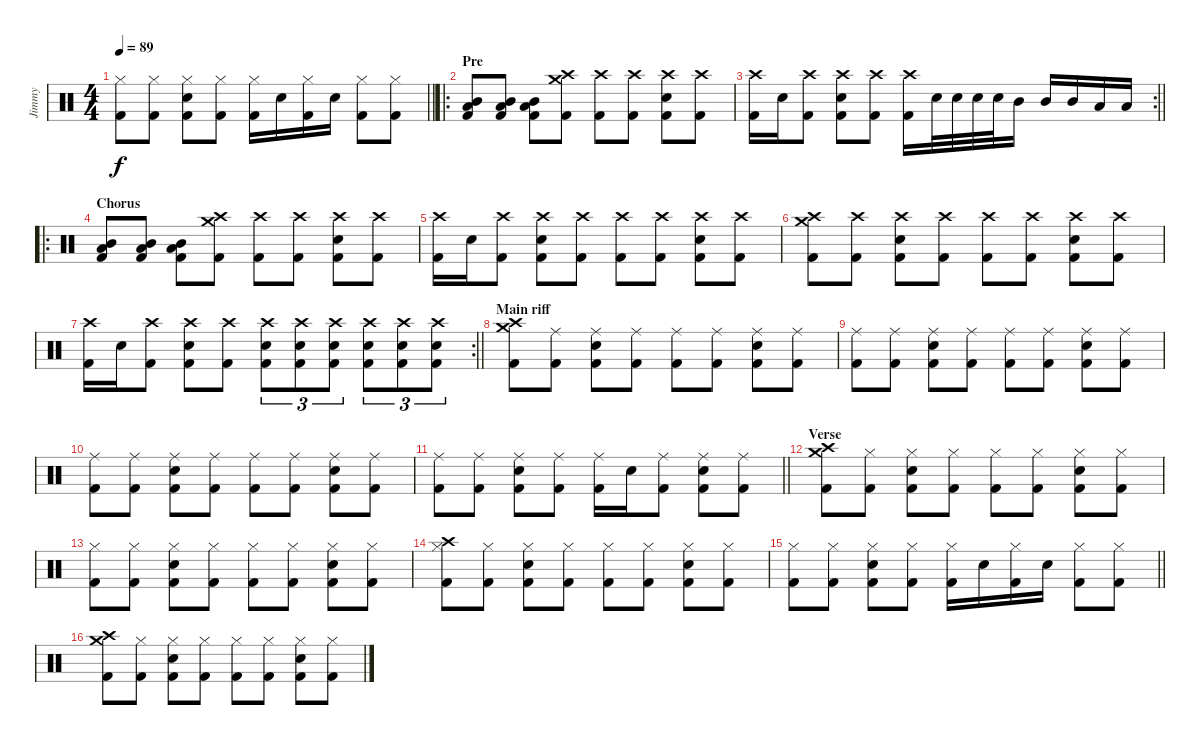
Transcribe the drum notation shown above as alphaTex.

\track ("Jimmy" "Jimmy") {instrument percussion}
\staff {score}
\articulation defaults
\ts (4 4)
\tempo 89
\clef neutral
\barLineRight lightlight
\ks c
("Kick (hit) 2" "Hi-Hat (closed)").8{dy f} ("Kick (hit) 2" "Hi-Hat (closed)").8 ("Kick (hit) 2" "Hi-Hat (closed)" "Electric Snare (hit)").8 ("Kick (hit) 2" "Hi-Hat (closed)").8 ("Kick (hit) 2" "Hi-Hat (closed)").16 "Electric Snare (hit)".16 ("Kick (hit) 2" "Hi-Hat (closed)").16 "Electric Snare (hit)".16 ("Kick (hit) 2" "Hi-Hat (closed)").8 ("Kick (hit) 2" "Hi-Hat (closed)").8 |
\ro
\section ("" "Pre")
("Low Tom (hit)" "Kick (hit) 2" "Mid Tom (hit)").8 ("Low Tom (hit)" "Kick (hit) 2" "Mid Tom (hit)").8 ("Low Tom (hit)" "Kick (hit) 2" "Mid Tom (hit)").8 ("Kick (hit) 2" "Crash high (hit)" "Crash medium (hit)").8 ("Kick (hit) 2" "Crash high (hit)").8 ("Kick (hit) 2" "Crash high (hit)").8 ("Kick (hit) 2" "Crash high (hit)" "Electric Snare (hit)").8 ("Kick (hit) 2" "Crash high (hit)").8 |
\rc 2
\barLineRight lightlight
("Kick (hit) 2" "Crash high (hit)").16 "Electric Snare (hit)".16 ("Kick (hit) 2" "Crash high (hit)").8 ("Kick (hit) 2" "Crash high (hit)" "Electric Snare (hit)").8 ("Kick (hit) 2" "Crash high (hit)").8 ("Kick (hit) 2" "Crash high (hit)").16 "Electric Snare (hit)".32 "Electric Snare (hit)".32 "Electric Snare (hit)".32 "Electric Snare (hit)".32 "Mid Tom (hit)".16 "Mid Tom (hit)".16 "Mid Tom (hit)".16 "Low Tom (hit)".16 "Low Tom (hit)".16 |
\ro
\section ("" "Chorus")
("Low Tom (hit)" "Kick (hit) 2" "Mid Tom (hit)").8 ("Low Tom (hit)" "Kick (hit) 2" "Mid Tom (hit)").8 ("Low Tom (hit)" "Kick (hit) 2" "Mid Tom (hit)").8 ("Kick (hit) 2" "Crash high (hit)" "Crash medium (hit)").8 ("Kick (hit) 2" "Crash high (hit)").8 ("Kick (hit) 2" "Crash high (hit)").8 ("Kick (hit) 2" "Crash high (hit)" "Electric Snare (hit)").8 ("Kick (hit) 2" "Crash high (hit)").8 |
("Kick (hit) 2" "Crash high (hit)").16 "Electric Snare (hit)".16 ("Kick (hit) 2" "Crash high (hit)").8 ("Kick (hit) 2" "Crash high (hit)" "Electric Snare (hit)").8 ("Kick (hit) 2" "Crash high (hit)").8 ("Kick (hit) 2" "Crash high (hit)").8 ("Kick (hit) 2" "Crash high (hit)").8 ("Kick (hit) 2" "Crash high (hit)" "Electric Snare (hit)").8 ("Kick (hit) 2" "Crash high (hit)").8 |
("Kick (hit) 2" "Crash high (hit)" "Crash medium (hit)").8 ("Kick (hit) 2" "Crash high (hit)").8 ("Kick (hit) 2" "Crash high (hit)" "Electric Snare (hit)").8 ("Kick (hit) 2" "Crash high (hit)").8 ("Kick (hit) 2" "Crash high (hit)").8 ("Kick (hit) 2" "Crash high (hit)").8 ("Kick (hit) 2" "Crash high (hit)" "Electric Snare (hit)").8 ("Kick (hit) 2" "Crash high (hit)").8 |
\rc 2
\barLineRight lightlight
("Kick (hit) 2" "Crash high (hit)").16 "Electric Snare (hit)".16 ("Kick (hit) 2" "Crash high (hit)").8 ("Kick (hit) 2" "Crash high (hit)" "Electric Snare (hit)").8 ("Kick (hit) 2" "Crash high (hit)").8 ("Kick (hit) 2" "Crash high (hit)" "Electric Snare (hit)").8{tu (3 2)} ("Kick (hit) 2" "Crash high (hit)" "Electric Snare (hit)").8{tu (3 2)} ("Kick (hit) 2" "Crash high (hit)" "Electric Snare (hit)").8{tu (3 2)} ("Kick (hit) 2" "Crash high (hit)" "Electric Snare (hit)").8{tu (3 2)} ("Kick (hit) 2" "Crash high (hit)" "Electric Snare (hit)").8{tu (3 2)} ("Kick (hit) 2" "Crash high (hit)" "Electric Snare (hit)").8{tu (3 2)} |
\section ("" "Main riff")
("Kick (hit) 2" "Crash medium (hit)" "Crash high (hit)").8 ("Kick (hit) 2" "Ride (middle)").8 ("Kick (hit) 2" "Ride (middle)" "Electric Snare (hit)").8 ("Kick (hit) 2" "Ride (middle)").8 ("Kick (hit) 2" "Ride (middle)").8 ("Kick (hit) 2" "Ride (middle)").8 ("Kick (hit) 2" "Ride (middle)" "Electric Snare (hit)").8 ("Kick (hit) 2" "Ride (middle)").8 |
("Kick (hit) 2" "Ride (middle)").8 ("Kick (hit) 2" "Ride (middle)").8 ("Kick (hit) 2" "Ride (middle)" "Electric Snare (hit)").8 ("Kick (hit) 2" "Ride (middle)").8 ("Kick (hit) 2" "Ride (middle)").8 ("Kick (hit) 2" "Ride (middle)").8 ("Kick (hit) 2" "Ride (middle)" "Electric Snare (hit)").8 ("Kick (hit) 2" "Ride (middle)").8 |
("Kick (hit) 2" "Ride (middle)").8 ("Kick (hit) 2" "Ride (middle)").8 ("Kick (hit) 2" "Ride (middle)" "Electric Snare (hit)").8 ("Kick (hit) 2" "Ride (middle)").8 ("Kick (hit) 2" "Ride (middle)").8 ("Kick (hit) 2" "Ride (middle)").8 ("Kick (hit) 2" "Ride (middle)" "Electric Snare (hit)").8 ("Kick (hit) 2" "Ride (middle)").8 |
\barLineRight lightlight
("Kick (hit) 2" "Ride (middle)").8 ("Kick (hit) 2" "Ride (middle)").8 ("Kick (hit) 2" "Ride (middle)" "Electric Snare (hit)").8 ("Kick (hit) 2" "Ride (middle)").8 ("Kick (hit) 2" "Ride (middle)").16 "Electric Snare (hit)".16 ("Kick (hit) 2" "Ride (middle)").8 ("Kick (hit) 2" "Ride (middle)" "Electric Snare (hit)").8 ("Kick (hit) 2" "Ride (middle)").8 |
\section ("" "Verse")
("Kick (hit) 2" "Crash medium (hit)" "Crash high (hit)").8 ("Kick (hit) 2" "Hi-Hat (closed)").8 ("Kick (hit) 2" "Hi-Hat (closed)" "Electric Snare (hit)").8 ("Kick (hit) 2" "Hi-Hat (closed)").8 ("Kick (hit) 2" "Hi-Hat (closed)").8 ("Kick (hit) 2" "Hi-Hat (closed)").8 ("Kick (hit) 2" "Hi-Hat (closed)" "Electric Snare (hit)").8 ("Kick (hit) 2" "Hi-Hat (closed)").8 |
("Kick (hit) 2" "Hi-Hat (closed)").8 ("Kick (hit) 2" "Hi-Hat (closed)").8 ("Kick (hit) 2" "Hi-Hat (closed)" "Electric Snare (hit)").8 ("Kick (hit) 2" "Hi-Hat (closed)").8 ("Kick (hit) 2" "Hi-Hat (closed)").8 ("Kick (hit) 2" "Hi-Hat (closed)").8 ("Kick (hit) 2" "Hi-Hat (closed)" "Electric Snare (hit)").8 ("Kick (hit) 2" "Hi-Hat (closed)").8 |
("Kick (hit) 2" "Hi-Hat (closed)" "Crash high (hit)").8 ("Kick (hit) 2" "Hi-Hat (closed)").8 ("Kick (hit) 2" "Hi-Hat (closed)" "Electric Snare (hit)").8 ("Kick (hit) 2" "Hi-Hat (closed)").8 ("Kick (hit) 2" "Hi-Hat (closed)").8 ("Kick (hit) 2" "Hi-Hat (closed)").8 ("Kick (hit) 2" "Hi-Hat (closed)" "Electric Snare (hit)").8 ("Kick (hit) 2" "Hi-Hat (closed)").8 |
\barLineRight lightlight
("Kick (hit) 2" "Hi-Hat (closed)").8 ("Kick (hit) 2" "Hi-Hat (closed)").8 ("Kick (hit) 2" "Hi-Hat (closed)" "Electric Snare (hit)").8 ("Kick (hit) 2" "Hi-Hat (closed)").8 ("Kick (hit) 2" "Hi-Hat (closed)").16 "Electric Snare (hit)".16 ("Kick (hit) 2" "Hi-Hat (closed)").16 "Electric Snare (hit)".16 ("Kick (hit) 2" "Hi-Hat (closed)").8 ("Kick (hit) 2" "Hi-Hat (closed)").8 |
("Kick (hit) 2" "Crash medium (hit)" "Crash high (hit)").8 ("Kick (hit) 2" "Hi-Hat (closed)").8 ("Kick (hit) 2" "Hi-Hat (closed)" "Electric Snare (hit)").8 ("Kick (hit) 2" "Hi-Hat (closed)").8 ("Kick (hit) 2" "Hi-Hat (closed)").8 ("Kick (hit) 2" "Hi-Hat (closed)").8 ("Kick (hit) 2" "Hi-Hat (closed)" "Electric Snare (hit)").8 ("Kick (hit) 2" "Hi-Hat (closed)").8
